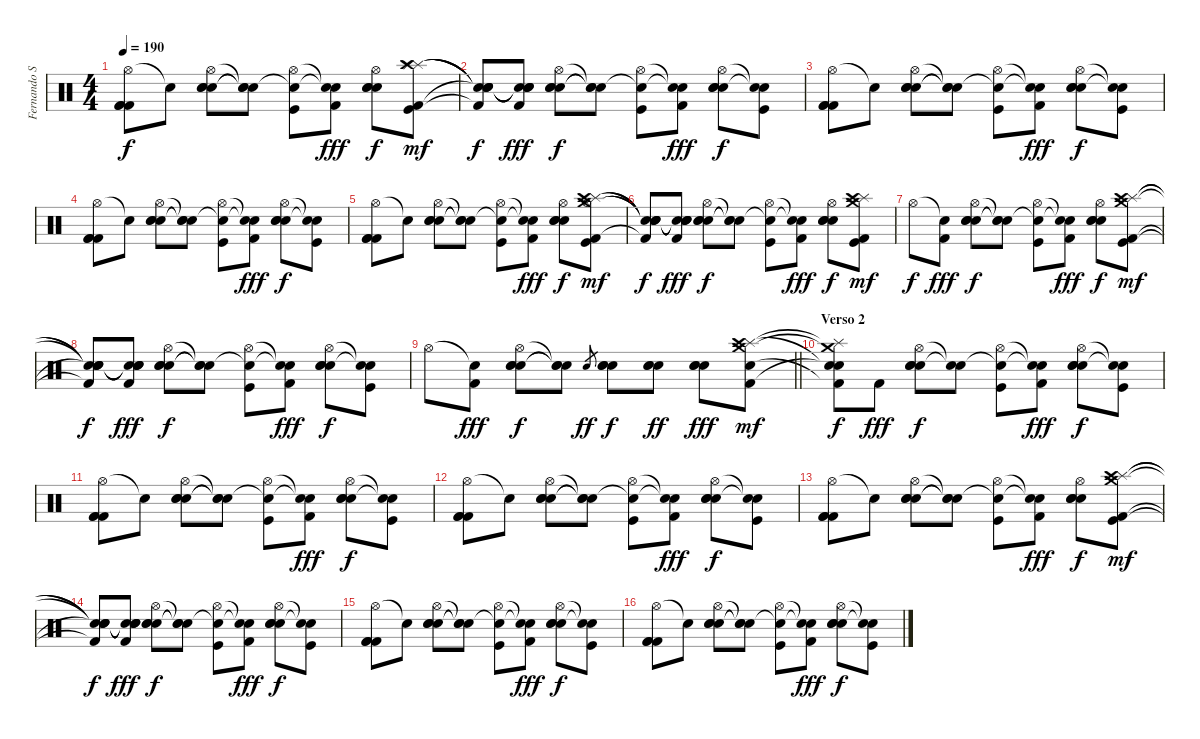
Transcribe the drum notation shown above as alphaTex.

\track ("Fernando Scarcella" "Fernando S") {instrument percussion}
\staff {score}
\articulation defaults
\ts (4 4)
\tempo 190
\clef neutral
\ks c
("Hi-Hat (open)" "Kick (hit) 2" "Kick (hit) 2" "Kick (hit) 2").8{dy f} "Snare (hit)"{t}.8 ("Hi-Hat (open)" "Electric Snare (hit)" "Electric Snare (hit)" "Electric Snare (hit)").8 ("Snare (hit)"{t} "Snare (hit)"{t} "Snare (hit)"{t}).8 ("Hi-Hat (open)" "Snare (hit)"{t} "Kick (hit)").8 ("Snare (hit)"{t} "Snare (hit)"{t} "Kick (hit) 2").8{dy fff} ("Hi-Hat (open)" "Electric Snare (hit)" "Electric Snare (hit)" "Electric Snare (hit)").8{dy f} ("Splash (hit)" "Splash (hit)" "Crash high (hit)" "Kick (hit) 2" "Kick (hit)").8{dy mf} |
("Snare (hit)"{t} "Snare (hit)"{t} "Snare (hit)"{t} "Snare (hit)"{t} "Kick (hit) 2"{t}).8{dy f} ("Snare (hit)"{t} "Snare (hit)"{t} "Snare (hit)"{t} "Snare (hit)"{t} "Kick (hit) 2").8{dy fff} ("Hi-Hat (open)" "Electric Snare (hit)" "Electric Snare (hit)" "Electric Snare (hit)").8{dy f} ("Snare (hit)"{t} "Snare (hit)"{t} "Snare (hit)"{t}).8 ("Hi-Hat (open)" "Snare (hit)"{t} "Kick (hit)").8 ("Snare (hit)"{t} "Snare (hit)"{t} "Kick (hit) 2").8{dy fff} ("Hi-Hat (open)" "Electric Snare (hit)" "Electric Snare (hit)" "Electric Snare (hit)").8{dy f} ("Snare (hit)"{t} "Snare (hit)"{t} "Kick (hit)").8 |
("Hi-Hat (open)" "Kick (hit) 2" "Kick (hit) 2" "Kick (hit) 2").8 "Snare (hit)"{t}.8 ("Hi-Hat (open)" "Electric Snare (hit)" "Electric Snare (hit)" "Electric Snare (hit)").8 ("Snare (hit)"{t} "Snare (hit)"{t} "Snare (hit)"{t}).8 ("Hi-Hat (open)" "Snare (hit)"{t} "Kick (hit)").8 ("Snare (hit)"{t} "Snare (hit)"{t} "Kick (hit) 2").8{dy fff} ("Hi-Hat (open)" "Electric Snare (hit)" "Electric Snare (hit)" "Electric Snare (hit)").8{dy f} ("Snare (hit)"{t} "Snare (hit)"{t} "Kick (hit)").8 |
("Hi-Hat (open)" "Kick (hit) 2" "Kick (hit) 2" "Kick (hit) 2").8 "Snare (hit)"{t}.8 ("Hi-Hat (open)" "Electric Snare (hit)" "Electric Snare (hit)" "Electric Snare (hit)").8 ("Snare (hit)"{t} "Snare (hit)"{t} "Snare (hit)"{t}).8 ("Hi-Hat (open)" "Snare (hit)"{t} "Kick (hit)").8 ("Snare (hit)"{t} "Snare (hit)"{t} "Kick (hit) 2").8{dy fff} ("Hi-Hat (open)" "Electric Snare (hit)" "Electric Snare (hit)" "Electric Snare (hit)").8{dy f} ("Snare (hit)"{t} "Snare (hit)"{t} "Kick (hit)").8 |
("Hi-Hat (open)" "Kick (hit) 2" "Kick (hit) 2" "Kick (hit) 2").8 "Snare (hit)"{t}.8 ("Hi-Hat (open)" "Electric Snare (hit)" "Electric Snare (hit)" "Electric Snare (hit)").8 ("Snare (hit)"{t} "Snare (hit)"{t} "Snare (hit)"{t}).8 ("Hi-Hat (open)" "Snare (hit)"{t} "Kick (hit)").8 ("Snare (hit)"{t} "Snare (hit)"{t} "Kick (hit) 2").8{dy fff} ("Hi-Hat (open)" "Electric Snare (hit)" "Electric Snare (hit)" "Electric Snare (hit)").8{dy f} ("Crash medium (hit)" "Splash (hit)" "Hi-Hat (open)" "Crash high (hit)" "Kick (hit) 2" "Kick (hit)").8{dy mf} |
("Snare (hit)"{t} "Snare (hit)"{t} "Snare (hit)"{t} "Snare (hit)"{t} "Kick (hit) 2"{t}).8{dy f} ("Snare (hit)"{t} "Snare (hit)"{t} "Snare (hit)"{t} "Snare (hit)"{t} "Kick (hit) 2").8{dy fff} ("Hi-Hat (open)" "Electric Snare (hit)" "Electric Snare (hit)" "Electric Snare (hit)").8{dy f} ("Snare (hit)"{t} "Snare (hit)"{t} "Snare (hit)"{t}).8 ("Hi-Hat (open)" "Snare (hit)"{t} "Kick (hit)").8 ("Snare (hit)"{t} "Snare (hit)"{t} "Kick (hit) 2").8{dy fff} ("Hi-Hat (open)" "Electric Snare (hit)" "Electric Snare (hit)" "Electric Snare (hit)").8{dy f} ("Crash medium (hit)" "Splash (hit)" "Crash high (hit)" "Kick (hit) 2" "Kick (hit)").8{dy mf} |
"Hi-Hat (open)".8{dy f} ("Snare (hit)"{t} "Kick (hit) 2").8{dy fff} ("Hi-Hat (open)" "Electric Snare (hit)" "Electric Snare (hit)" "Electric Snare (hit)").8{dy f} ("Snare (hit)"{t} "Snare (hit)"{t} "Snare (hit)"{t}).8 ("Hi-Hat (open)" "Snare (hit)"{t} "Kick (hit)").8 ("Snare (hit)"{t} "Snare (hit)"{t} "Kick (hit) 2").8{dy fff} ("Hi-Hat (open)" "Electric Snare (hit)" "Electric Snare (hit)" "Electric Snare (hit)").8{dy f} ("Crash medium (hit)" "Splash (hit)" "Crash high (hit)" "Kick (hit) 2" "Kick (hit)").8{dy mf} |
("Snare (hit)"{t} "Snare (hit)"{t} "Snare (hit)"{t} "Snare (hit)"{t} "Kick (hit) 2"{t}).8{dy f} ("Snare (hit)"{t} "Snare (hit)"{t} "Snare (hit)"{t} "Snare (hit)"{t} "Kick (hit) 2").8{dy fff} ("Hi-Hat (open)" "Electric Snare (hit)" "Electric Snare (hit)" "Electric Snare (hit)").8{dy f} ("Snare (hit)"{t} "Snare (hit)"{t} "Snare (hit)"{t}).8 ("Hi-Hat (open)" "Snare (hit)"{t} "Kick (hit)").8 ("Snare (hit)"{t} "Snare (hit)"{t} "Kick (hit) 2").8{dy fff} ("Hi-Hat (open)" "Electric Snare (hit)" "Electric Snare (hit)" "Electric Snare (hit)").8{dy f} ("Snare (hit)"{t} "Snare (hit)"{t} "Kick (hit)").8 |
\barLineRight lightlight "Hi-Hat (open)".8
("Snare (hit)"{t} "Kick (hit) 2").8{dy fff} ("Hi-Hat (open)" "Electric Snare (hit)" "Electric Snare (hit)" "Electric Snare (hit)").8{dy f} ("Snare (hit)"{t} "Snare (hit)"{t} "Snare (hit)"{t}).8 "Electric Snare (hit)".8{gr dy ff} ("Electric Snare (hit)" "Electric Snare (hit)" "Electric Snare (hit)").8{dy f} ("Electric Snare (hit)" "Electric Snare (hit)" "Electric Snare (hit)").8{dy ff} ("Electric Snare (hit)" "Electric Snare (hit)" "Electric Snare (hit)").8{dy fff} ("Crash medium (hit)" "Splash (hit)" "Crash high (hit)" "Kick (hit) 2" "Snare (hit)").8{dy mf} |
\section ("" "Verso 2")
("Crash medium (hit)"{t} "Splash (hit)"{t} "Snare (hit)"{t} "Snare (hit)"{t} "Kick (hit) 2"{t}).8{dy f} "Kick (hit) 2".8{dy fff} ("Hi-Hat (open)" "Electric Snare (hit)" "Electric Snare (hit)" "Electric Snare (hit)").8{dy f} ("Snare (hit)"{t} "Snare (hit)"{t}).8 ("Hi-Hat (open)" "Snare (hit)"{t} "Kick (hit)").8 ("Snare (hit)"{t} "Snare (hit)"{t} "Kick (hit) 2").8{dy fff} ("Hi-Hat (open)" "Electric Snare (hit)" "Electric Snare (hit)" "Electric Snare (hit)").8{dy f} ("Snare (hit)"{t} "Snare (hit)"{t} "Kick (hit)").8 |
("Hi-Hat (open)" "Kick (hit) 2" "Kick (hit) 2" "Kick (hit) 2").8 "Snare (hit)"{t}.8 ("Hi-Hat (open)" "Electric Snare (hit)" "Electric Snare (hit)" "Electric Snare (hit)").8 ("Snare (hit)"{t} "Snare (hit)"{t} "Snare (hit)"{t}).8 ("Hi-Hat (open)" "Snare (hit)"{t} "Kick (hit)").8 ("Snare (hit)"{t} "Snare (hit)"{t} "Kick (hit) 2").8{dy fff} ("Hi-Hat (open)" "Electric Snare (hit)" "Electric Snare (hit)" "Electric Snare (hit)").8{dy f} ("Snare (hit)"{t} "Snare (hit)"{t} "Kick (hit)").8 |
("Hi-Hat (open)" "Kick (hit) 2" "Kick (hit) 2" "Kick (hit) 2").8 "Snare (hit)"{t}.8 ("Hi-Hat (open)" "Electric Snare (hit)" "Electric Snare (hit)" "Electric Snare (hit)").8 ("Snare (hit)"{t} "Snare (hit)"{t} "Snare (hit)"{t}).8 ("Hi-Hat (open)" "Snare (hit)"{t} "Kick (hit)").8 ("Snare (hit)"{t} "Snare (hit)"{t} "Kick (hit) 2").8{dy fff} ("Hi-Hat (open)" "Electric Snare (hit)" "Electric Snare (hit)" "Electric Snare (hit)").8{dy f} ("Snare (hit)"{t} "Snare (hit)"{t} "Kick (hit)").8 |
("Hi-Hat (open)" "Kick (hit) 2" "Kick (hit) 2" "Kick (hit) 2").8 "Snare (hit)"{t}.8 ("Hi-Hat (open)" "Electric Snare (hit)" "Electric Snare (hit)" "Electric Snare (hit)").8 ("Snare (hit)"{t} "Snare (hit)"{t} "Snare (hit)"{t}).8 ("Hi-Hat (open)" "Snare (hit)"{t} "Kick (hit)").8 ("Snare (hit)"{t} "Snare (hit)"{t} "Kick (hit) 2").8{dy fff} ("Hi-Hat (open)" "Electric Snare (hit)" "Electric Snare (hit)" "Electric Snare (hit)").8{dy f} ("Crash medium (hit)" "Splash (hit)" "Crash high (hit)" "Kick (hit) 2" "Kick (hit)").8{dy mf} |
("Snare (hit)"{t} "Snare (hit)"{t} "Snare (hit)"{t} "Snare (hit)"{t} "Kick (hit) 2"{t}).8{dy f} ("Snare (hit)"{t} "Snare (hit)"{t} "Snare (hit)"{t} "Snare (hit)"{t} "Kick (hit) 2").8{dy fff} ("Hi-Hat (open)" "Electric Snare (hit)" "Electric Snare (hit)" "Electric Snare (hit)").8{dy f} ("Snare (hit)"{t} "Snare (hit)"{t} "Snare (hit)"{t}).8 ("Hi-Hat (open)" "Snare (hit)"{t} "Kick (hit)").8 ("Snare (hit)"{t} "Snare (hit)"{t} "Kick (hit) 2").8{dy fff} ("Hi-Hat (open)" "Electric Snare (hit)" "Electric Snare (hit)" "Electric Snare (hit)").8{dy f} ("Snare (hit)"{t} "Snare (hit)"{t} "Kick (hit)").8 |
("Hi-Hat (open)" "Kick (hit) 2" "Kick (hit) 2" "Kick (hit) 2").8 "Snare (hit)"{t}.8 ("Hi-Hat (open)" "Electric Snare (hit)" "Electric Snare (hit)" "Electric Snare (hit)").8 ("Snare (hit)"{t} "Snare (hit)"{t} "Snare (hit)"{t}).8 ("Hi-Hat (open)" "Snare (hit)"{t} "Kick (hit)").8 ("Snare (hit)"{t} "Snare (hit)"{t} "Kick (hit) 2").8{dy fff} ("Hi-Hat (open)" "Electric Snare (hit)" "Electric Snare (hit)" "Electric Snare (hit)").8{dy f} ("Snare (hit)"{t} "Snare (hit)"{t} "Kick (hit)").8 |
("Hi-Hat (open)" "Kick (hit) 2" "Kick (hit) 2" "Kick (hit) 2").8 "Snare (hit)"{t}.8 ("Hi-Hat (open)" "Electric Snare (hit)" "Electric Snare (hit)" "Electric Snare (hit)").8 ("Snare (hit)"{t} "Snare (hit)"{t} "Snare (hit)"{t}).8 ("Hi-Hat (open)" "Snare (hit)"{t} "Kick (hit)").8 ("Snare (hit)"{t} "Snare (hit)"{t} "Kick (hit) 2").8{dy fff} ("Hi-Hat (open)" "Electric Snare (hit)" "Electric Snare (hit)" "Electric Snare (hit)").8{dy f} ("Snare (hit)"{t} "Snare (hit)"{t} "Kick (hit)").8
